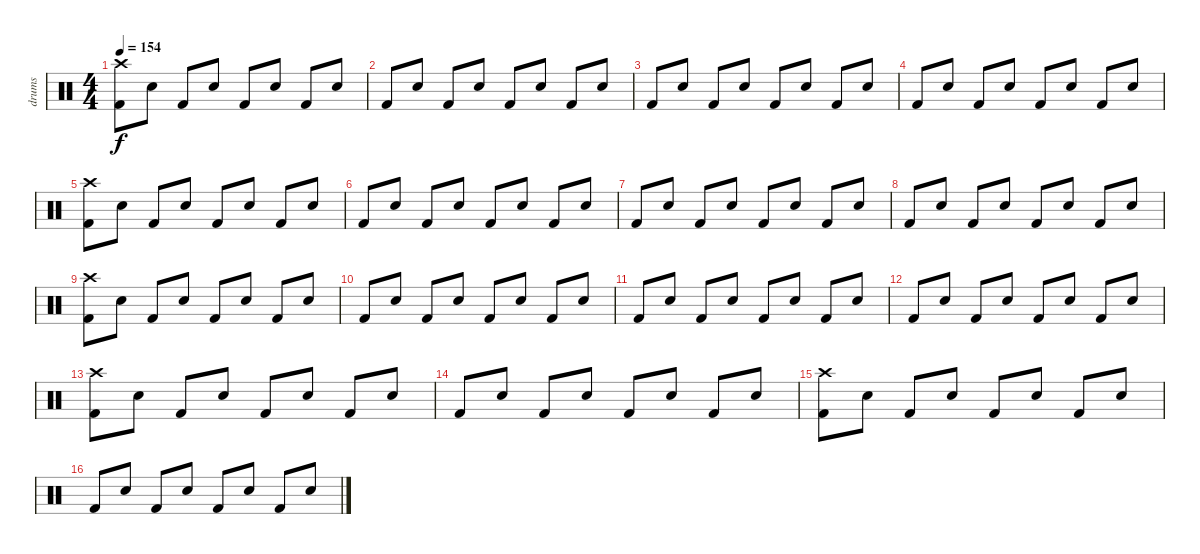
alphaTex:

\track ("drums" "drums") {instrument percussion}
\staff {score}
\articulation defaults
\ts (4 4)
\tempo 154
\clef neutral
\ks c
("Crash high (hit)" "Kick (hit) 2").8{dy f} "Snare (hit) 2".8 "Kick (hit) 2".8 "Snare (hit) 2".8 "Kick (hit) 2".8 "Snare (hit) 2".8 "Kick (hit) 2".8 "Snare (hit) 2".8 |
"Kick (hit) 2".8 "Snare (hit) 2".8 "Kick (hit) 2".8 "Snare (hit) 2".8 "Kick (hit) 2".8 "Snare (hit) 2".8 "Kick (hit) 2".8 "Snare (hit) 2".8 |
"Kick (hit) 2".8 "Snare (hit) 2".8 "Kick (hit) 2".8 "Snare (hit) 2".8 "Kick (hit) 2".8 "Snare (hit) 2".8 "Kick (hit) 2".8 "Snare (hit) 2".8 |
"Kick (hit) 2".8 "Snare (hit) 2".8 "Kick (hit) 2".8 "Snare (hit) 2".8 "Kick (hit) 2".8 "Snare (hit) 2".8 "Kick (hit) 2".8 "Snare (hit) 2".8 |
("Crash high (hit)" "Kick (hit) 2").8 "Snare (hit) 2".8 "Kick (hit) 2".8 "Snare (hit) 2".8 "Kick (hit) 2".8 "Snare (hit) 2".8 "Kick (hit) 2".8 "Snare (hit) 2".8 |
"Kick (hit) 2".8 "Snare (hit) 2".8 "Kick (hit) 2".8 "Snare (hit) 2".8 "Kick (hit) 2".8 "Snare (hit) 2".8 "Kick (hit) 2".8 "Snare (hit) 2".8 |
"Kick (hit) 2".8 "Snare (hit) 2".8 "Kick (hit) 2".8 "Snare (hit) 2".8 "Kick (hit) 2".8 "Snare (hit) 2".8 "Kick (hit) 2".8 "Snare (hit) 2".8 |
"Kick (hit) 2".8 "Snare (hit) 2".8 "Kick (hit) 2".8 "Snare (hit) 2".8 "Kick (hit) 2".8 "Snare (hit) 2".8 "Kick (hit) 2".8 "Snare (hit) 2".8 |
("Crash high (hit)" "Kick (hit) 2").8 "Snare (hit) 2".8 "Kick (hit) 2".8 "Snare (hit) 2".8 "Kick (hit) 2".8 "Snare (hit) 2".8 "Kick (hit) 2".8 "Snare (hit) 2".8 |
"Kick (hit) 2".8 "Snare (hit) 2".8 "Kick (hit) 2".8 "Snare (hit) 2".8 "Kick (hit) 2".8 "Snare (hit) 2".8 "Kick (hit) 2".8 "Snare (hit) 2".8 |
"Kick (hit) 2".8 "Snare (hit) 2".8 "Kick (hit) 2".8 "Snare (hit) 2".8 "Kick (hit) 2".8 "Snare (hit) 2".8 "Kick (hit) 2".8 "Snare (hit) 2".8 |
"Kick (hit) 2".8 "Snare (hit) 2".8 "Kick (hit) 2".8 "Snare (hit) 2".8 "Kick (hit) 2".8 "Snare (hit) 2".8 "Kick (hit) 2".8 "Snare (hit) 2".8 |
("Crash high (hit)" "Kick (hit) 2").8 "Snare (hit) 2".8 "Kick (hit) 2".8 "Snare (hit) 2".8 "Kick (hit) 2".8 "Snare (hit) 2".8 "Kick (hit) 2".8 "Snare (hit) 2".8 |
"Kick (hit) 2".8 "Snare (hit) 2".8 "Kick (hit) 2".8 "Snare (hit) 2".8 "Kick (hit) 2".8 "Snare (hit) 2".8 "Kick (hit) 2".8 "Snare (hit) 2".8 |
("Crash high (hit)" "Kick (hit) 2").8 "Snare (hit) 2".8 "Kick (hit) 2".8 "Snare (hit) 2".8 "Kick (hit) 2".8 "Snare (hit) 2".8 "Kick (hit) 2".8 "Snare (hit) 2".8 |
"Kick (hit) 2".8 "Snare (hit) 2".8 "Kick (hit) 2".8 "Snare (hit) 2".8 "Kick (hit) 2".8 "Snare (hit) 2".8 "Kick (hit) 2".8 "Snare (hit) 2".8
